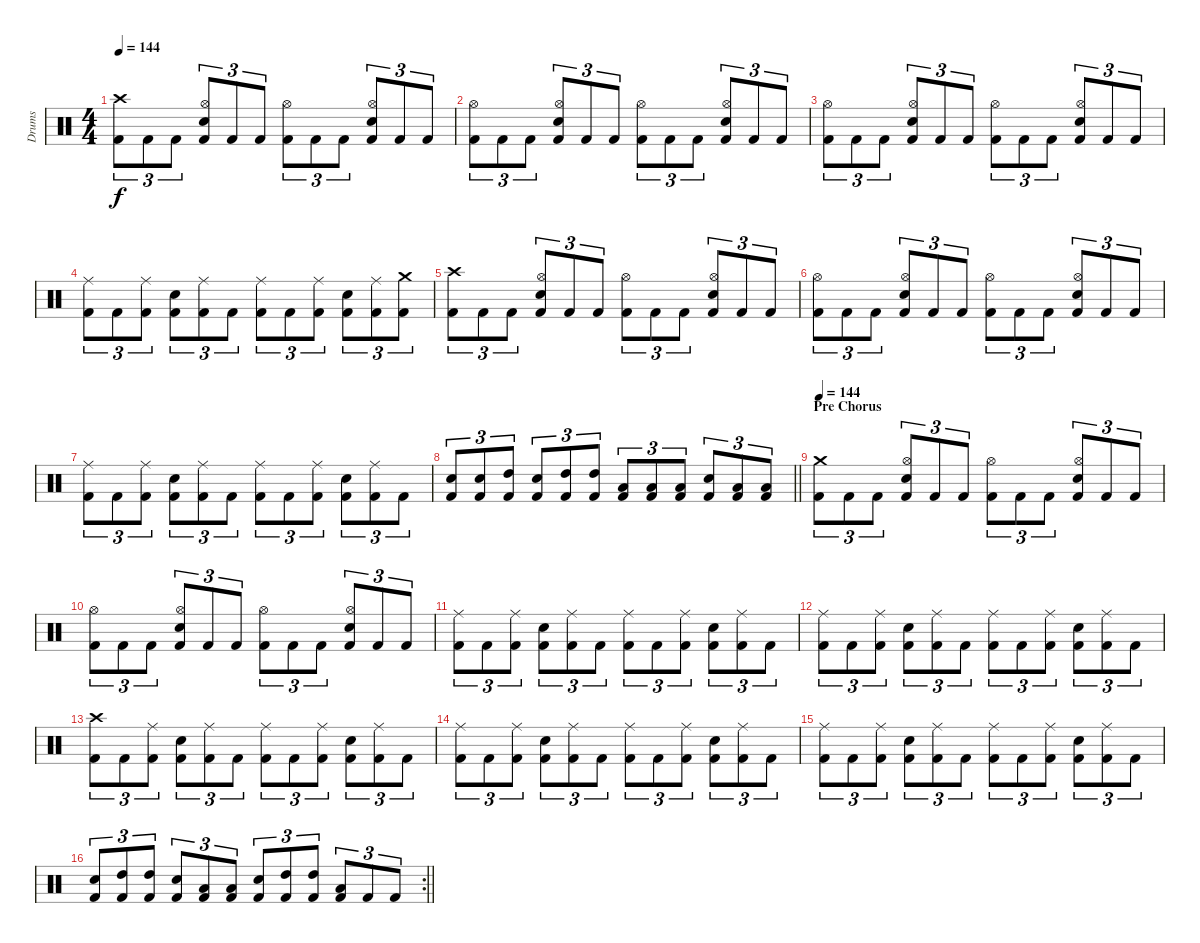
\track ("Drums" "Drums") {instrument percussion}
\staff {score}
\articulation defaults
\ts (4 4)
\tempo 144
\clef neutral
\ks c
("Crash high (hit)" "Kick (hit) 2").8{tu (3 2) dy f} "Kick (hit) 2".8{tu (3 2)} "Kick (hit) 2".8{tu (3 2)} ("Hi-Hat (open)" "Snare (hit) 2" "Kick (hit) 2").8{tu (3 2)} "Kick (hit) 2".8{tu (3 2)} "Kick (hit) 2".8{tu (3 2)} ("Hi-Hat (open)" "Kick (hit) 2").8{tu (3 2)} "Kick (hit) 2".8{tu (3 2)} "Kick (hit) 2".8{tu (3 2)} ("Hi-Hat (open)" "Snare (hit) 2" "Kick (hit) 2").8{tu (3 2)} "Kick (hit) 2".8{tu (3 2)} "Kick (hit) 2".8{tu (3 2)} |
("Hi-Hat (open)" "Kick (hit) 2").8{tu (3 2)} "Kick (hit) 2".8{tu (3 2)} "Kick (hit) 2".8{tu (3 2)} ("Hi-Hat (open)" "Snare (hit) 2" "Kick (hit) 2").8{tu (3 2)} "Kick (hit) 2".8{tu (3 2)} "Kick (hit) 2".8{tu (3 2)} ("Hi-Hat (open)" "Kick (hit) 2").8{tu (3 2)} "Kick (hit) 2".8{tu (3 2)} "Kick (hit) 2".8{tu (3 2)} ("Hi-Hat (open)" "Snare (hit) 2" "Kick (hit) 2").8{tu (3 2)} "Kick (hit) 2".8{tu (3 2)} "Kick (hit) 2".8{tu (3 2)} |
("Hi-Hat (open)" "Kick (hit) 2").8{tu (3 2)} "Kick (hit) 2".8{tu (3 2)} "Kick (hit) 2".8{tu (3 2)} ("Hi-Hat (open)" "Snare (hit) 2" "Kick (hit) 2").8{tu (3 2)} "Kick (hit) 2".8{tu (3 2)} "Kick (hit) 2".8{tu (3 2)} ("Hi-Hat (open)" "Kick (hit) 2").8{tu (3 2)} "Kick (hit) 2".8{tu (3 2)} "Kick (hit) 2".8{tu (3 2)} ("Hi-Hat (open)" "Snare (hit) 2" "Kick (hit) 2").8{tu (3 2)} "Kick (hit) 2".8{tu (3 2)} "Kick (hit) 2".8{tu (3 2)} |
("Ride (middle)" "Kick (hit) 2").8{tu (3 2)} "Kick (hit) 2".8{tu (3 2)} ("Ride (middle)" "Kick (hit) 2").8{tu (3 2)} ("Snare (hit) 2" "Kick (hit) 2").8{tu (3 2)} ("Ride (middle)" "Kick (hit) 2").8{tu (3 2)} "Kick (hit) 2".8{tu (3 2)} ("Ride (middle)" "Kick (hit) 2").8{tu (3 2)} "Kick (hit) 2".8{tu (3 2)} ("Ride (middle)" "Kick (hit) 2").8{tu (3 2)} ("Snare (hit) 2" "Kick (hit) 2").8{tu (3 2)} ("Ride (middle)" "Kick (hit) 2").8{tu (3 2)} ("Crash medium (hit)" "Kick (hit) 2").8{tu (3 2)} |
("Crash high (hit)" "Kick (hit) 2").8{tu (3 2)} "Kick (hit) 2".8{tu (3 2)} "Kick (hit) 2".8{tu (3 2)} ("Hi-Hat (open)" "Snare (hit) 2" "Kick (hit) 2").8{tu (3 2)} "Kick (hit) 2".8{tu (3 2)} "Kick (hit) 2".8{tu (3 2)} ("Hi-Hat (open)" "Kick (hit) 2").8{tu (3 2)} "Kick (hit) 2".8{tu (3 2)} "Kick (hit) 2".8{tu (3 2)} ("Hi-Hat (open)" "Snare (hit) 2" "Kick (hit) 2").8{tu (3 2)} "Kick (hit) 2".8{tu (3 2)} "Kick (hit) 2".8{tu (3 2)} |
("Hi-Hat (open)" "Kick (hit) 2").8{tu (3 2)} "Kick (hit) 2".8{tu (3 2)} "Kick (hit) 2".8{tu (3 2)} ("Hi-Hat (open)" "Snare (hit) 2" "Kick (hit) 2").8{tu (3 2)} "Kick (hit) 2".8{tu (3 2)} "Kick (hit) 2".8{tu (3 2)} ("Hi-Hat (open)" "Kick (hit) 2").8{tu (3 2)} "Kick (hit) 2".8{tu (3 2)} "Kick (hit) 2".8{tu (3 2)} ("Hi-Hat (open)" "Snare (hit) 2" "Kick (hit) 2").8{tu (3 2)} "Kick (hit) 2".8{tu (3 2)} "Kick (hit) 2".8{tu (3 2)} |
("Ride (middle)" "Kick (hit) 2").8{tu (3 2)} "Kick (hit) 2".8{tu (3 2)} ("Ride (middle)" "Kick (hit) 2").8{tu (3 2)} ("Snare (hit) 2" "Kick (hit) 2").8{tu (3 2)} ("Ride (middle)" "Kick (hit) 2").8{tu (3 2)} "Kick (hit) 2".8{tu (3 2)} ("Ride (middle)" "Kick (hit) 2").8{tu (3 2)} "Kick (hit) 2".8{tu (3 2)} ("Ride (middle)" "Kick (hit) 2").8{tu (3 2)} ("Snare (hit) 2" "Kick (hit) 2").8{tu (3 2)} ("Ride (middle)" "Kick (hit) 2").8{tu (3 2)} "Kick (hit) 2".8{tu (3 2)} |
\barLineRight lightlight
("Snare (hit) 2" "Kick (hit) 2").8{tu (3 2)} ("Snare (hit) 2" "Kick (hit) 2").8{tu (3 2)} ("High Tom (hit)" "Kick (hit) 2").8{tu (3 2)} ("Snare (hit) 2" "Kick (hit) 2").8{tu (3 2)} ("High Tom (hit)" "Kick (hit) 2").8{tu (3 2)} ("High Tom (hit)" "Kick (hit) 2").8{tu (3 2)} ("Low Tom (hit)" "Kick (hit) 2").8{tu (3 2)} ("Low Tom (hit)" "Kick (hit) 2").8{tu (3 2)} ("Low Tom (hit)" "Kick (hit) 2").8{tu (3 2)} ("Snare (hit) 2" "Kick (hit) 2").8{tu (3 2)} ("Low Tom (hit)" "Kick (hit) 2").8{tu (3 2)} ("Low Tom (hit)" "Kick (hit) 2").8{tu (3 2)} |
\section ("" "Pre Chorus")
\tempo 144
("Crash medium (hit)" "Kick (hit) 2").8{tu (3 2)} "Kick (hit) 2".8{tu (3 2)} "Kick (hit) 2".8{tu (3 2)} ("Hi-Hat (open)" "Snare (hit) 2" "Kick (hit) 2").8{tu (3 2)} "Kick (hit) 2".8{tu (3 2)} "Kick (hit) 2".8{tu (3 2)} ("Hi-Hat (open)" "Kick (hit) 2").8{tu (3 2)} "Kick (hit) 2".8{tu (3 2)} "Kick (hit) 2".8{tu (3 2)} ("Hi-Hat (open)" "Snare (hit) 2" "Kick (hit) 2").8{tu (3 2)} "Kick (hit) 2".8{tu (3 2)} "Kick (hit) 2".8{tu (3 2)} |
("Hi-Hat (open)" "Kick (hit) 2").8{tu (3 2)} "Kick (hit) 2".8{tu (3 2)} "Kick (hit) 2".8{tu (3 2)} ("Hi-Hat (open)" "Snare (hit) 2" "Kick (hit) 2").8{tu (3 2)} "Kick (hit) 2".8{tu (3 2)} "Kick (hit) 2".8{tu (3 2)} ("Hi-Hat (open)" "Kick (hit) 2").8{tu (3 2)} "Kick (hit) 2".8{tu (3 2)} "Kick (hit) 2".8{tu (3 2)} ("Hi-Hat (open)" "Snare (hit) 2" "Kick (hit) 2").8{tu (3 2)} "Kick (hit) 2".8{tu (3 2)} "Kick (hit) 2".8{tu (3 2)} |
("Ride (middle)" "Kick (hit) 2").8{tu (3 2)} "Kick (hit) 2".8{tu (3 2)} ("Ride (middle)" "Kick (hit) 2").8{tu (3 2)} ("Snare (hit) 2" "Kick (hit) 2").8{tu (3 2)} ("Ride (middle)" "Kick (hit) 2").8{tu (3 2)} "Kick (hit) 2".8{tu (3 2)} ("Ride (middle)" "Kick (hit) 2").8{tu (3 2)} "Kick (hit) 2".8{tu (3 2)} ("Ride (middle)" "Kick (hit) 2").8{tu (3 2)} ("Snare (hit) 2" "Kick (hit) 2").8{tu (3 2)} ("Ride (middle)" "Kick (hit) 2").8{tu (3 2)} "Kick (hit) 2".8{tu (3 2)} |
("Ride (middle)" "Kick (hit) 2").8{tu (3 2)} "Kick (hit) 2".8{tu (3 2)} ("Ride (middle)" "Kick (hit) 2").8{tu (3 2)} ("Snare (hit) 2" "Kick (hit) 2").8{tu (3 2)} ("Ride (middle)" "Kick (hit) 2").8{tu (3 2)} "Kick (hit) 2".8{tu (3 2)} ("Ride (middle)" "Kick (hit) 2").8{tu (3 2)} "Kick (hit) 2".8{tu (3 2)} ("Ride (middle)" "Kick (hit) 2").8{tu (3 2)} ("Snare (hit) 2" "Kick (hit) 2").8{tu (3 2)} ("Ride (middle)" "Kick (hit) 2").8{tu (3 2)} "Kick (hit) 2".8{tu (3 2)} |
("Crash high (hit)" "Kick (hit) 2").8{tu (3 2)} "Kick (hit) 2".8{tu (3 2)} ("Ride (middle)" "Kick (hit) 2").8{tu (3 2)} ("Snare (hit) 2" "Kick (hit) 2").8{tu (3 2)} ("Ride (middle)" "Kick (hit) 2").8{tu (3 2)} "Kick (hit) 2".8{tu (3 2)} ("Ride (middle)" "Kick (hit) 2").8{tu (3 2)} "Kick (hit) 2".8{tu (3 2)} ("Ride (middle)" "Kick (hit) 2").8{tu (3 2)} ("Snare (hit) 2" "Kick (hit) 2").8{tu (3 2)} ("Ride (middle)" "Kick (hit) 2").8{tu (3 2)} "Kick (hit) 2".8{tu (3 2)} |
("Ride (middle)" "Kick (hit) 2").8{tu (3 2)} "Kick (hit) 2".8{tu (3 2)} ("Ride (middle)" "Kick (hit) 2").8{tu (3 2)} ("Snare (hit) 2" "Kick (hit) 2").8{tu (3 2)} ("Ride (middle)" "Kick (hit) 2").8{tu (3 2)} "Kick (hit) 2".8{tu (3 2)} ("Ride (middle)" "Kick (hit) 2").8{tu (3 2)} "Kick (hit) 2".8{tu (3 2)} ("Ride (middle)" "Kick (hit) 2").8{tu (3 2)} ("Snare (hit) 2" "Kick (hit) 2").8{tu (3 2)} ("Ride (middle)" "Kick (hit) 2").8{tu (3 2)} "Kick (hit) 2".8{tu (3 2)} |
("Ride (middle)" "Kick (hit) 2").8{tu (3 2)} "Kick (hit) 2".8{tu (3 2)} ("Ride (middle)" "Kick (hit) 2").8{tu (3 2)} ("Snare (hit) 2" "Kick (hit) 2").8{tu (3 2)} ("Ride (middle)" "Kick (hit) 2").8{tu (3 2)} "Kick (hit) 2".8{tu (3 2)} ("Ride (middle)" "Kick (hit) 2").8{tu (3 2)} "Kick (hit) 2".8{tu (3 2)} ("Ride (middle)" "Kick (hit) 2").8{tu (3 2)} ("Snare (hit) 2" "Kick (hit) 2").8{tu (3 2)} ("Ride (middle)" "Kick (hit) 2").8{tu (3 2)} "Kick (hit) 2".8{tu (3 2)} |
\rc 2
\barLineRight lightlight
("Snare (hit) 2" "Kick (hit) 2").8{tu (3 2)} ("High Tom (hit)" "Kick (hit) 2").8{tu (3 2)} ("High Tom (hit)" "Kick (hit) 2").8{tu (3 2)} ("Snare (hit) 2" "Kick (hit) 2").8{tu (3 2)} ("Low Tom (hit)" "Kick (hit) 2").8{tu (3 2)} ("Low Tom (hit)" "Kick (hit) 2").8{tu (3 2)} ("Snare (hit) 2" "Kick (hit) 2").8{tu (3 2)} ("High Tom (hit)" "Kick (hit) 2").8{tu (3 2)} ("High Tom (hit)" "Kick (hit) 2").8{tu (3 2)} ("Low Tom (hit)" "Kick (hit) 2").8{tu (3 2)} "Kick (hit) 2".8{tu (3 2)} "Kick (hit) 2".8{tu (3 2)}
